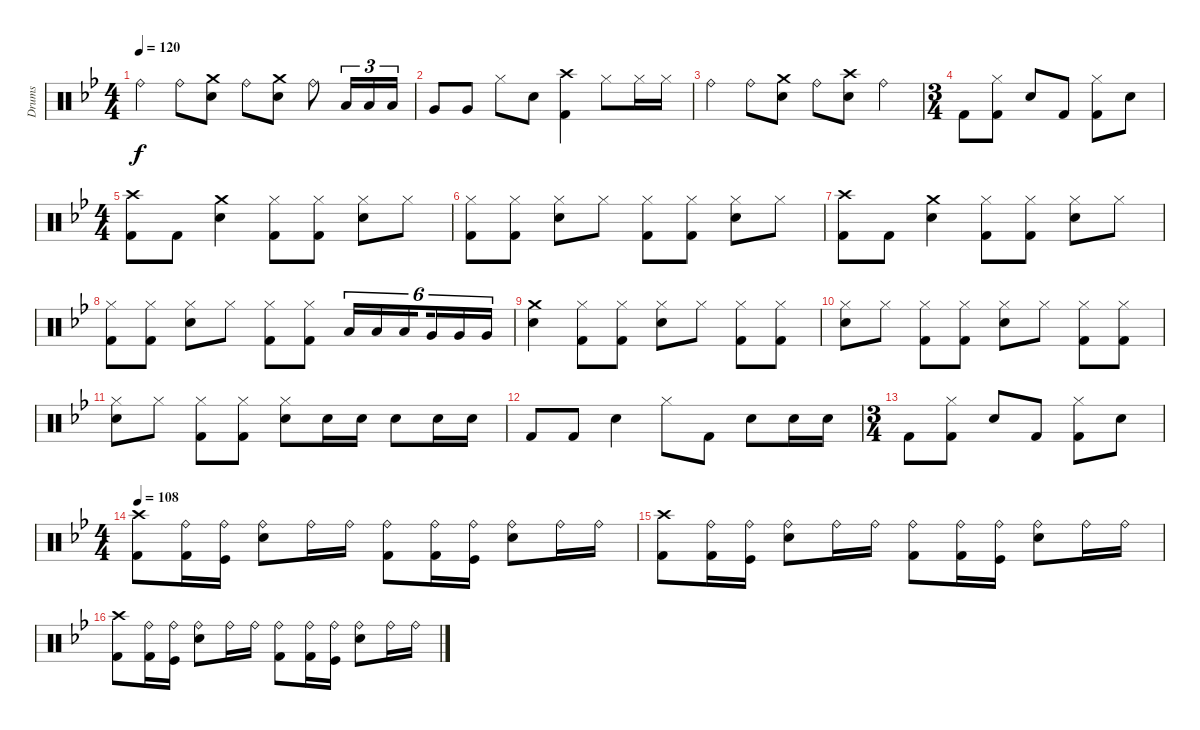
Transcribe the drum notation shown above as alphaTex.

\track ("Drums" "Drums") {instrument percussion}
\staff {score}
\articulation defaults
\ts (4 4)
\tempo 120
\clef neutral
\ks bb "Ride (bell)".4{dy f} "Ride (bell)".8
("Crash medium (hit)" "Electric Snare (hit)").8 "Ride (bell)".8 ("Crash medium (hit)" "Electric Snare (hit)").8 "Ride (bell)".8 "Low Floor Tom (hit)".16{tu (3 2)} "Low Floor Tom (hit)".16{tu (3 2)} "Low Floor Tom (hit)".16{tu (3 2)} |
"Very Low Tom (hit)".8 "Very Low Tom (hit)".8 "Hi-Hat (closed)".8 "Electric Snare (hit)".8 ("Crash high (hit)" "Kick (hit) 2").4 "Hi-Hat (closed)".8 "Hi-Hat (closed)".16 "Hi-Hat (closed)".16 |
"Ride (bell)".4 "Ride (bell)".8 ("Crash medium (hit)" "Electric Snare (hit)").8 "Ride (bell)".8 ("Crash high (hit)" "Electric Snare (hit)").8 "Ride (bell)".4 |
\ts (3 4)
"Kick (hit) 2".8 ("Hi-Hat (closed)" "Kick (hit) 2").8 "Electric Snare (hit)".8 "Kick (hit) 2".8 ("Hi-Hat (closed)" "Kick (hit) 2").8 "Electric Snare (hit)".8 |
\ts (4 4)
("Crash high (hit)" "Kick (hit) 2").8 "Kick (hit) 2".8 ("Crash medium (hit)" "Electric Snare (hit)").4 ("Hi-Hat (closed)" "Kick (hit) 2").8 ("Hi-Hat (closed)" "Kick (hit) 2").8 ("Hi-Hat (closed)" "Electric Snare (hit)").8 "Hi-Hat (closed)".8 |
("Hi-Hat (closed)" "Kick (hit) 2").8 ("Hi-Hat (closed)" "Kick (hit) 2").8 ("Hi-Hat (closed)" "Electric Snare (hit)").8 "Hi-Hat (closed)".8 ("Hi-Hat (closed)" "Kick (hit) 2").8 ("Hi-Hat (closed)" "Kick (hit) 2").8 ("Hi-Hat (closed)" "Electric Snare (hit)").8 "Hi-Hat (closed)".8 |
("Crash high (hit)" "Kick (hit) 2").8 "Kick (hit) 2".8 ("Crash medium (hit)" "Electric Snare (hit)").4 ("Hi-Hat (closed)" "Kick (hit) 2").8 ("Hi-Hat (closed)" "Kick (hit) 2").8 ("Hi-Hat (closed)" "Electric Snare (hit)").8 "Hi-Hat (closed)".8 |
("Hi-Hat (closed)" "Kick (hit) 2").8 ("Hi-Hat (closed)" "Kick (hit) 2").8 ("Hi-Hat (closed)" "Electric Snare (hit)").8 "Hi-Hat (closed)".8 ("Hi-Hat (closed)" "Kick (hit) 2").8 ("Hi-Hat (closed)" "Kick (hit) 2").8 "Low Tom (hit)".16{tu (6 4)} "Low Tom (hit)".16{tu (6 4)} "Low Tom (hit)".16{tu (6 4) beam splitsecondary} "Very Low Tom (hit)".16{tu (6 4)} "Very Low Tom (hit)".16{tu (6 4)} "Very Low Tom (hit)".16{tu (6 4)} |
("Crash medium (hit)" "Electric Snare (hit)").4 ("Hi-Hat (closed)" "Kick (hit) 2").8 ("Hi-Hat (closed)" "Kick (hit) 2").8 ("Hi-Hat (closed)" "Electric Snare (hit)").8 "Hi-Hat (closed)".8 ("Hi-Hat (closed)" "Kick (hit) 2").8 ("Hi-Hat (closed)" "Kick (hit) 2").8 |
("Hi-Hat (closed)" "Electric Snare (hit)").8 "Hi-Hat (closed)".8 ("Hi-Hat (closed)" "Kick (hit) 2").8 ("Hi-Hat (closed)" "Kick (hit) 2").8 ("Hi-Hat (closed)" "Electric Snare (hit)").8 "Hi-Hat (closed)".8 ("Hi-Hat (closed)" "Kick (hit) 2").8 ("Hi-Hat (closed)" "Kick (hit) 2").8 |
("Hi-Hat (closed)" "Electric Snare (hit)").8 "Hi-Hat (closed)".8 ("Hi-Hat (closed)" "Kick (hit) 2").8 ("Hi-Hat (closed)" "Kick (hit) 2").8 ("Hi-Hat (closed)" "Electric Snare (hit)").8 "Electric Snare (hit)".16 "Electric Snare (hit)".16 "Electric Snare (hit)".8 "Electric Snare (hit)".16 "Electric Snare (hit)".16 |
"Kick (hit) 2".8 "Kick (hit) 2".8 "Electric Snare (hit)".4 "Hi-Hat (closed)".8 "Kick (hit) 2".8 "Electric Snare (hit)".8 "Electric Snare (hit)".16 "Electric Snare (hit)".16 |
\ts (3 4)
"Kick (hit) 2".8 ("Hi-Hat (closed)" "Kick (hit) 2").8 "Electric Snare (hit)".8 "Kick (hit) 2".8 ("Hi-Hat (closed)" "Kick (hit) 2").8 "Electric Snare (hit)".8 |
\ts (4 4)
\tempo 108
("Crash high (hit)" "Kick (hit) 2").8 ("Ride (bell)" "Kick (hit) 2").16 ("Ride (bell)" "Kick (hit)").16 ("Ride (bell)" "Electric Snare (hit)").8 "Ride (bell)".16 "Ride (bell)".16 ("Ride (bell)" "Kick (hit) 2").8 ("Ride (bell)" "Kick (hit) 2").16 ("Ride (bell)" "Kick (hit)").16 ("Ride (bell)" "Electric Snare (hit)").8 "Ride (bell)".16 "Ride (bell)".16 |
("Crash high (hit)" "Kick (hit) 2").8 ("Ride (bell)" "Kick (hit) 2").16 ("Ride (bell)" "Kick (hit)").16 ("Ride (bell)" "Electric Snare (hit)").8 "Ride (bell)".16 "Ride (bell)".16 ("Ride (bell)" "Kick (hit) 2").8 ("Ride (bell)" "Kick (hit) 2").16 ("Ride (bell)" "Kick (hit)").16 ("Ride (bell)" "Electric Snare (hit)").8 "Ride (bell)".16 "Ride (bell)".16 |
("Crash high (hit)" "Kick (hit) 2").8 ("Ride (bell)" "Kick (hit) 2").16 ("Ride (bell)" "Kick (hit)").16 ("Ride (bell)" "Electric Snare (hit)").8 "Ride (bell)".16 "Ride (bell)".16 ("Ride (bell)" "Kick (hit) 2").8 ("Ride (bell)" "Kick (hit) 2").16 ("Ride (bell)" "Kick (hit)").16 ("Ride (bell)" "Electric Snare (hit)").8 "Ride (bell)".16 "Ride (bell)".16
